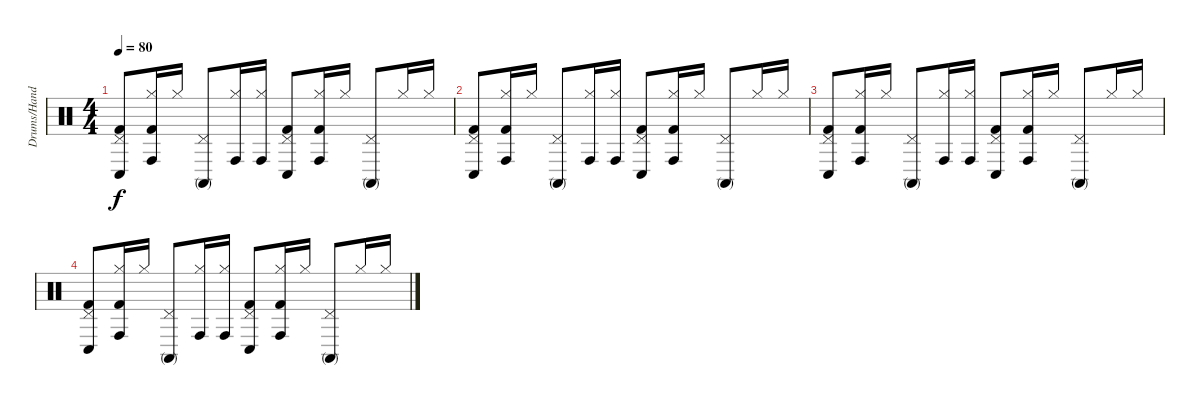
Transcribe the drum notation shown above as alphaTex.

\track ("Drums/Hand percussion" "Drums/Hand") {instrument percussion}
\staff {score}
\articulation defaults
\ts (4 4)
\tempo 80
\clef neutral
\ks c
("Pedal Hi-Hat (hit)" "Conga low (hit)" "Kick (hit) 2").8{dy f} ("Hi-Hat (closed)" "Conga high (hit)" "Kick (hit) 2").16 "Hi-Hat (closed)".16 ("Pedal Hi-Hat (hit)" "Conga high (mute)").8 ("Hi-Hat (closed)" "Conga high (hit)").16 ("Hi-Hat (closed)" "Conga high (hit)").16 ("Pedal Hi-Hat (hit)" "Conga low (hit)" "Kick (hit) 2").8 ("Hi-Hat (closed)" "Conga high (hit)" "Kick (hit) 2").16 "Hi-Hat (closed)".16 ("Pedal Hi-Hat (hit)" "Conga high (mute)").8 "Hi-Hat (closed)".16 "Hi-Hat (closed)".16 |
("Pedal Hi-Hat (hit)" "Conga low (hit)" "Kick (hit) 2").8 ("Hi-Hat (closed)" "Conga high (hit)" "Kick (hit) 2").16 "Hi-Hat (closed)".16 ("Pedal Hi-Hat (hit)" "Conga high (mute)").8 ("Hi-Hat (closed)" "Conga high (hit)").16 ("Hi-Hat (closed)" "Conga high (hit)").16 ("Pedal Hi-Hat (hit)" "Conga low (hit)" "Kick (hit) 2").8 ("Hi-Hat (closed)" "Conga high (hit)" "Kick (hit) 2").16 "Hi-Hat (closed)".16 ("Pedal Hi-Hat (hit)" "Conga high (mute)").8 "Hi-Hat (closed)".16 "Hi-Hat (closed)".16 |
("Pedal Hi-Hat (hit)" "Conga low (hit)" "Kick (hit) 2").8 ("Hi-Hat (closed)" "Conga high (hit)" "Kick (hit) 2").16 "Hi-Hat (closed)".16 ("Pedal Hi-Hat (hit)" "Conga high (mute)").8 ("Hi-Hat (closed)" "Conga high (hit)").16 ("Hi-Hat (closed)" "Conga high (hit)").16 ("Pedal Hi-Hat (hit)" "Conga low (hit)" "Kick (hit) 2").8 ("Hi-Hat (closed)" "Conga high (hit)" "Kick (hit) 2").16 "Hi-Hat (closed)".16 ("Pedal Hi-Hat (hit)" "Conga high (mute)").8 "Hi-Hat (closed)".16 "Hi-Hat (closed)".16 |
("Pedal Hi-Hat (hit)" "Conga low (hit)" "Kick (hit) 2").8 ("Hi-Hat (closed)" "Conga high (hit)" "Kick (hit) 2").16 "Hi-Hat (closed)".16 ("Pedal Hi-Hat (hit)" "Conga high (mute)").8 ("Hi-Hat (closed)" "Conga high (hit)").16 ("Hi-Hat (closed)" "Conga high (hit)").16 ("Pedal Hi-Hat (hit)" "Conga low (hit)" "Kick (hit) 2").8 ("Hi-Hat (closed)" "Conga high (hit)" "Kick (hit) 2").16 "Hi-Hat (closed)".16 ("Pedal Hi-Hat (hit)" "Conga high (mute)").8 "Hi-Hat (closed)".16 "Hi-Hat (closed)".16
